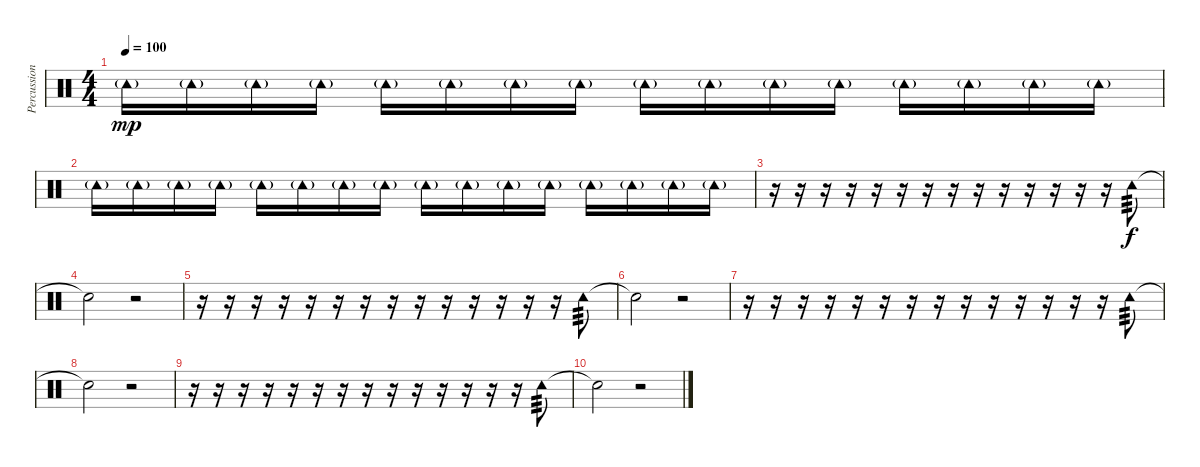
\track ("Percussion" "Percussion") {instrument percussion}
\staff {score}
\articulation defaults
\ts (4 4)
\tempo 100
\clef neutral
\ks c "Tambourine (hit)"{g}.16{dy mp} "Tambourine (hit)"{g}.16 "Tambourine (hit)"{g}.16 "Tambourine (hit)"{g}.16 "Tambourine (hit)"{g}.16 "Tambourine (hit)"{g}.16 "Tambourine (hit)"{g}.16 "Tambourine (hit)"{g}.16 "Tambourine (hit)"{g}.16 "Tambourine (hit)"{g}.16 "Tambourine (hit)"{g}.16 "Tambourine (hit)"{g}.16 "Tambourine (hit)"{g}.16 "Tambourine (hit)"{g}.16 "Tambourine (hit)"{g}.16 "Tambourine (hit)"{g}.16
|
"Tambourine (hit)"{g}.16 "Tambourine (hit)"{g}.16 "Tambourine (hit)"{g}.16 "Tambourine (hit)"{g}.16 "Tambourine (hit)"{g}.16 "Tambourine (hit)"{g}.16 "Tambourine (hit)"{g}.16 "Tambourine (hit)"{g}.16 "Tambourine (hit)"{g}.16 "Tambourine (hit)"{g}.16 "Tambourine (hit)"{g}.16 "Tambourine (hit)"{g}.16 "Tambourine (hit)"{g}.16 "Tambourine (hit)"{g}.16 "Tambourine (hit)"{g}.16 "Tambourine (hit)"{g}.16 |
r.16 r.16 r.16 r.16 r.16 r.16 r.16 r.16 r.16 r.16 r.16 r.16 r.16 r.16 "Tambourine (hit)".8{tp 3 dy f} |
"Snare (hit)"{t}.2 r.2 |
r.16 r.16 r.16 r.16 r.16 r.16 r.16 r.16 r.16 r.16 r.16 r.16 r.16 r.16 "Tambourine (hit)".8{tp 3} |
"Snare (hit)"{t}.2 r.2 |
r.16 r.16 r.16 r.16 r.16 r.16 r.16 r.16 r.16 r.16 r.16 r.16 r.16 r.16 "Tambourine (hit)".8{tp 3} |
"Snare (hit)"{t}.2 r.2 |
r.16 r.16 r.16 r.16 r.16 r.16 r.16 r.16 r.16 r.16 r.16 r.16 r.16 r.16 "Tambourine (hit)".8{tp 3} |
"Snare (hit)"{t}.2 r.2
